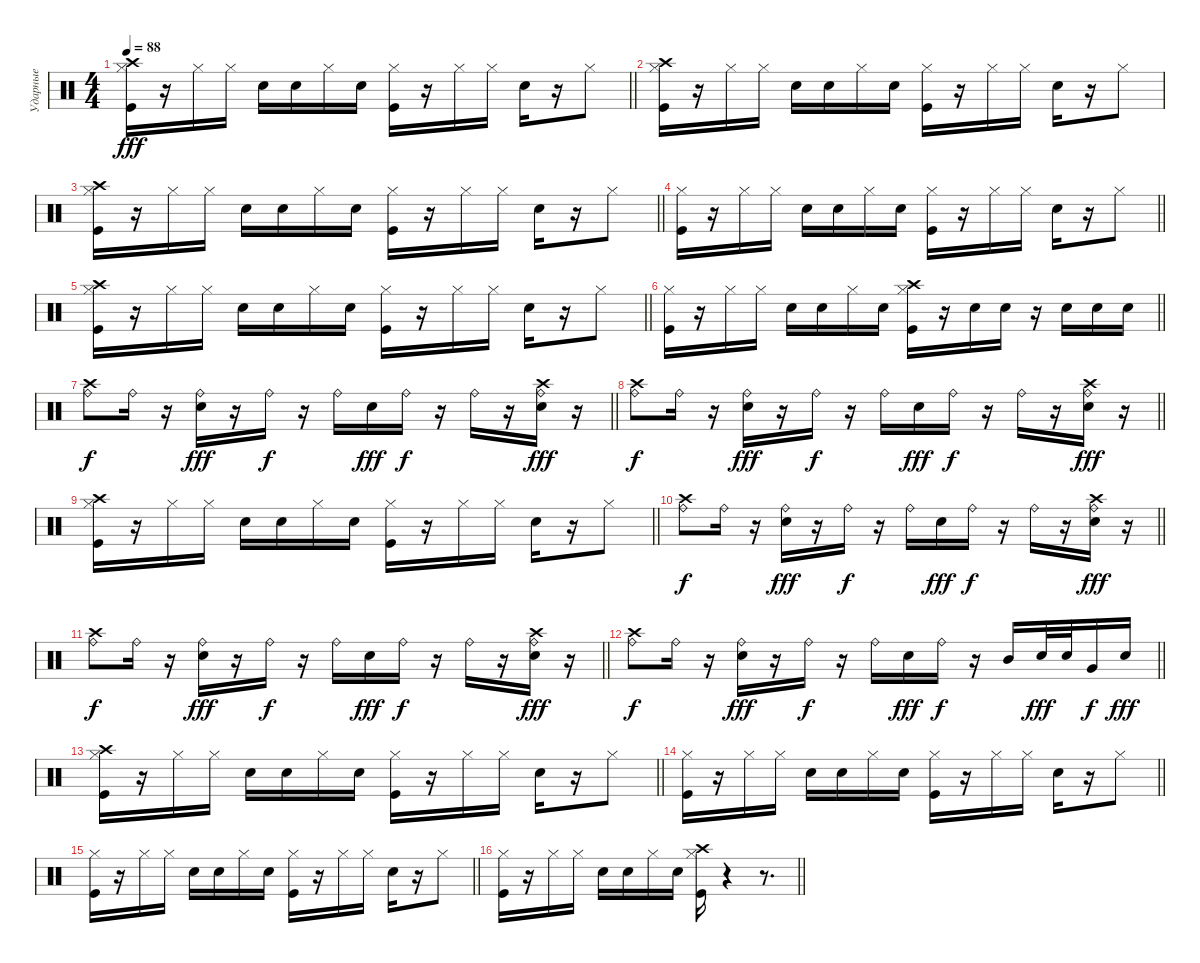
\track ("Ударные" "Ударные") {solo instrument percussion}
\staff {score}
\articulation defaults
\ts (4 4)
\tempo 88
\clef neutral
\barLineRight lightlight
\ks aminor
("Hi-Hat (closed)" "Kick (hit)" "Crash high (hit)").16{dy fff} r.16 "Hi-Hat (closed)".16 "Hi-Hat (closed)".16 "Snare (hit) 2".16 "Snare (hit) 2".16 "Hi-Hat (closed)".16 "Snare (hit) 2".16 ("Hi-Hat (closed)" "Kick (hit)").16 r.16 "Hi-Hat (closed)".16 "Hi-Hat (closed)".16 "Snare (hit) 2".16 r.16 "Hi-Hat (closed)".8 |
("Hi-Hat (closed)" "Kick (hit)" "Crash high (hit)").16 r.16 "Hi-Hat (closed)".16 "Hi-Hat (closed)".16 "Snare (hit) 2".16 "Snare (hit) 2".16 "Hi-Hat (closed)".16 "Snare (hit) 2".16 ("Hi-Hat (closed)" "Kick (hit)").16 r.16 "Hi-Hat (closed)".16 "Hi-Hat (closed)".16 "Snare (hit) 2".16 r.16 "Hi-Hat (closed)".8 |
\barLineRight lightlight
("Hi-Hat (closed)" "Kick (hit)" "Crash high (hit)").16 r.16 "Hi-Hat (closed)".16 "Hi-Hat (closed)".16 "Snare (hit) 2".16 "Snare (hit) 2".16 "Hi-Hat (closed)".16 "Snare (hit) 2".16 ("Hi-Hat (closed)" "Kick (hit)").16 r.16 "Hi-Hat (closed)".16 "Hi-Hat (closed)".16 "Snare (hit) 2".16 r.16 "Hi-Hat (closed)".8 |
\barLineRight lightlight
("Hi-Hat (closed)" "Kick (hit)").16 r.16 "Hi-Hat (closed)".16 "Hi-Hat (closed)".16 "Snare (hit) 2".16 "Snare (hit) 2".16 "Hi-Hat (closed)".16 "Snare (hit) 2".16 ("Hi-Hat (closed)" "Kick (hit)").16 r.16 "Hi-Hat (closed)".16 "Hi-Hat (closed)".16 "Snare (hit) 2".16 r.16 "Hi-Hat (closed)".8 |
\barLineRight lightlight
("Hi-Hat (closed)" "Kick (hit)" "Crash high (hit)").16 r.16 "Hi-Hat (closed)".16 "Hi-Hat (closed)".16 "Snare (hit) 2".16 "Snare (hit) 2".16 "Hi-Hat (closed)".16 "Snare (hit) 2".16 ("Hi-Hat (closed)" "Kick (hit)").16 r.16 "Hi-Hat (closed)".16 "Hi-Hat (closed)".16 "Snare (hit) 2".16 r.16 "Hi-Hat (closed)".8 |
\barLineRight lightlight
("Hi-Hat (closed)" "Kick (hit)").16 r.16 "Hi-Hat (closed)".16 "Hi-Hat (closed)".16 "Snare (hit) 2".16 "Snare (hit) 2".16 "Hi-Hat (closed)".16 "Snare (hit) 2".16 ("Hi-Hat (closed)" "Kick (hit)" "Crash high (hit)").16 r.16 "Snare (hit) 2".16 "Snare (hit) 2".16 r.16 "Snare (hit) 2".16 "Snare (hit) 2".16 "Snare (hit) 2".16 |
\barLineRight lightlight
("Ride (bell)" "Crash high (hit)").8{dy f} "Ride (bell)".16 r.16 ("Ride (bell)" "Electric Snare (hit)").16{dy fff} r.16 "Ride (bell)".16{dy f} r.16 "Ride (bell)".16 "Electric Snare (hit)".16{dy fff} "Ride (bell)".16{dy f} r.16 "Ride (bell)".16 r.16 ("Ride (bell)" "Electric Snare (hit)" "Crash high (hit)").16{dy fff} r.16 |
\barLineRight lightlight
("Ride (bell)" "Crash high (hit)").8{dy f} "Ride (bell)".16 r.16 ("Ride (bell)" "Electric Snare (hit)").16{dy fff} r.16 "Ride (bell)".16{dy f} r.16 "Ride (bell)".16 "Electric Snare (hit)".16{dy fff} "Ride (bell)".16{dy f} r.16 "Ride (bell)".16 r.16 ("Ride (bell)" "Electric Snare (hit)" "Crash high (hit)").16{dy fff} r.16 |
\barLineRight lightlight
("Hi-Hat (closed)" "Kick (hit)" "Crash high (hit)").16 r.16 "Hi-Hat (closed)".16 "Hi-Hat (closed)".16 "Snare (hit) 2".16 "Snare (hit) 2".16 "Hi-Hat (closed)".16 "Snare (hit) 2".16 ("Hi-Hat (closed)" "Kick (hit)").16 r.16 "Hi-Hat (closed)".16 "Hi-Hat (closed)".16 "Snare (hit) 2".16 r.16 "Hi-Hat (closed)".8 |
\barLineRight lightlight
("Ride (bell)" "Crash high (hit)").8{dy f} "Ride (bell)".16 r.16 ("Ride (bell)" "Electric Snare (hit)").16{dy fff} r.16 "Ride (bell)".16{dy f} r.16 "Ride (bell)".16 "Electric Snare (hit)".16{dy fff} "Ride (bell)".16{dy f} r.16 "Ride (bell)".16 r.16 ("Ride (bell)" "Electric Snare (hit)" "Crash high (hit)").16{dy fff} r.16 |
\barLineRight lightlight
("Ride (bell)" "Crash high (hit)").8{dy f} "Ride (bell)".16 r.16 ("Ride (bell)" "Electric Snare (hit)").16{dy fff} r.16 "Ride (bell)".16{dy f} r.16 "Ride (bell)".16 "Electric Snare (hit)".16{dy fff} "Ride (bell)".16{dy f} r.16 "Ride (bell)".16 r.16 ("Ride (bell)" "Electric Snare (hit)" "Crash high (hit)").16{dy fff} r.16 |
\barLineRight lightlight
("Ride (bell)" "Crash high (hit)").8{dy f} "Ride (bell)".16 r.16 ("Ride (bell)" "Electric Snare (hit)").16{dy fff} r.16 "Ride (bell)".16{dy f} r.16 "Ride (bell)".16 "Electric Snare (hit)".16{dy fff} "Ride (bell)".16{dy f} r.16 "Mid Tom (hit)".16 "Electric Snare (hit)".32{dy fff} "Electric Snare (hit)".32 "Very Low Tom (hit)".16{dy f} "Electric Snare (hit)".16{dy fff} |
\section ("" "")
\barLineRight lightlight
("Hi-Hat (closed)" "Kick (hit)" "Crash high (hit)").16 r.16 "Hi-Hat (closed)".16 "Hi-Hat (closed)".16 "Snare (hit) 2".16 "Snare (hit) 2".16 "Hi-Hat (closed)".16 "Snare (hit) 2".16 ("Hi-Hat (closed)" "Kick (hit)").16 r.16 "Hi-Hat (closed)".16 "Hi-Hat (closed)".16 "Snare (hit) 2".16 r.16 "Hi-Hat (closed)".8 |
\barLineRight lightlight
("Hi-Hat (closed)" "Kick (hit)").16 r.16 "Hi-Hat (closed)".16 "Hi-Hat (closed)".16 "Snare (hit) 2".16 "Snare (hit) 2".16 "Hi-Hat (closed)".16 "Snare (hit) 2".16 ("Hi-Hat (closed)" "Kick (hit)").16 r.16 "Hi-Hat (closed)".16 "Hi-Hat (closed)".16 "Snare (hit) 2".16 r.16 "Hi-Hat (closed)".8 |
\barLineRight lightlight
("Hi-Hat (closed)" "Kick (hit)").16 r.16 "Hi-Hat (closed)".16 "Hi-Hat (closed)".16 "Snare (hit) 2".16 "Snare (hit) 2".16 "Hi-Hat (closed)".16 "Snare (hit) 2".16 ("Hi-Hat (closed)" "Kick (hit)").16 r.16 "Hi-Hat (closed)".16 "Hi-Hat (closed)".16 "Snare (hit) 2".16 r.16 "Hi-Hat (closed)".8 |
\barLineRight lightlight
("Hi-Hat (closed)" "Kick (hit)").16 r.16 "Hi-Hat (closed)".16 "Hi-Hat (closed)".16 "Snare (hit) 2".16 "Snare (hit) 2".16 "Hi-Hat (closed)".16 "Snare (hit) 2".16 ("Hi-Hat (closed)" "Kick (hit)" "Crash high (hit)").16 r.4 r.8{d}
